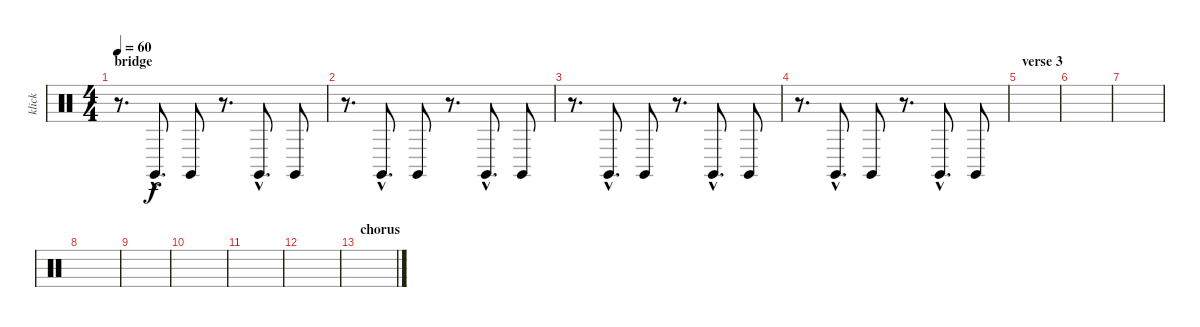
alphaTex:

\track ("klick" "klick") {instrument percussion}
\staff {score}
\articulation defaults
\ts (4 4)
\section ("" "bridge")
\tempo 60
\clef neutral
\ks c
r.8{d dy f} "Claves (hit)"{hac}.8{d} "Claves (hit)".8 r.8{d} "Claves (hit)"{hac}.8{d} "Claves (hit)".8 |
r.8{d} "Claves (hit)"{hac}.8{d} "Claves (hit)".8 r.8{d} "Claves (hit)"{hac}.8{d} "Claves (hit)".8 |
r.8{d} "Claves (hit)"{hac}.8{d} "Claves (hit)".8 r.8{d} "Claves (hit)"{hac}.8{d} "Claves (hit)".8 |
r.8{d} "Claves (hit)"{hac}.8{d} "Claves (hit)".8 r.8{d} "Claves (hit)"{hac}.8{d} "Claves (hit)".8 |
\section ("" "verse 3")
|
|
|
|
|
|
|
|
\section ("" "chorus")
